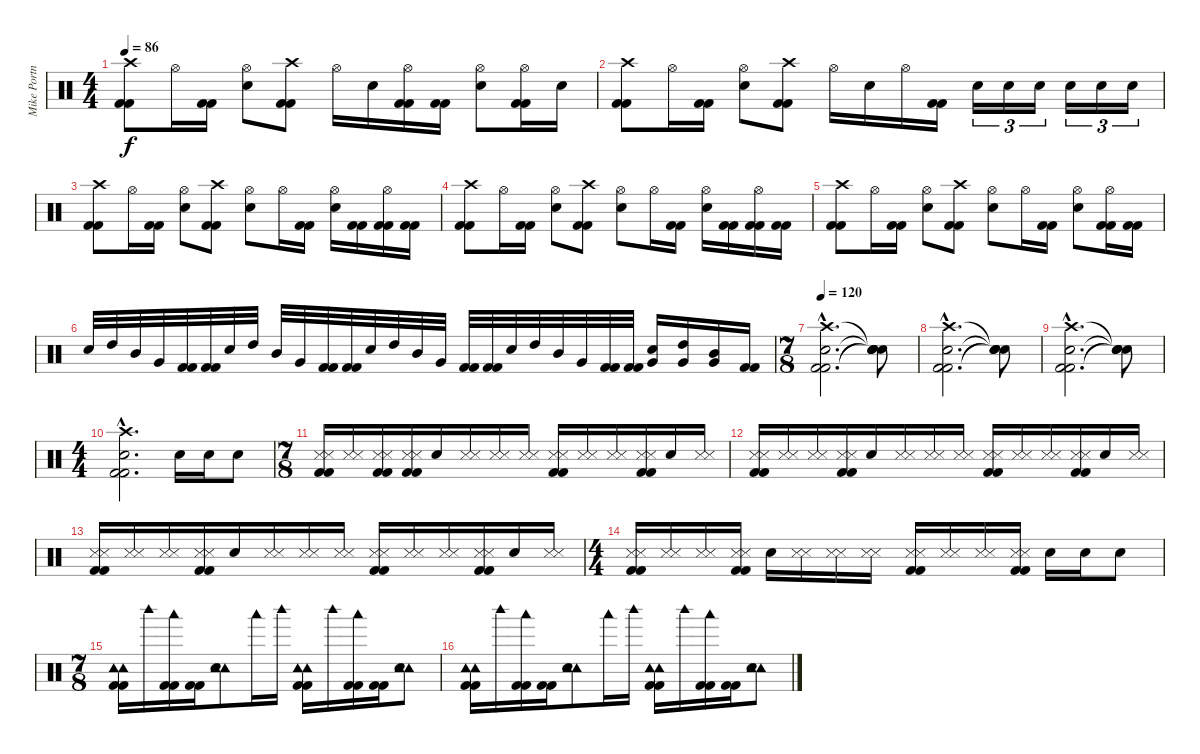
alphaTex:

\track ("Mike Portnoy - Drum" "Mike Portn") {instrument percussion}
\staff {score}
\articulation defaults
\ts (4 4)
\tempo 86
\clef neutral
\ks c
("Crash high (hit)" "Kick (hit) 2" "Kick (hit) 2").8{dy f} "Hi-Hat (open)".16 ("Kick (hit) 2" "Kick (hit) 2").16 ("Hi-Hat (open)" "Snare (hit) 2").8 ("Crash high (hit)" "Kick (hit) 2" "Kick (hit) 2").8 "Hi-Hat (open)".16 "Snare (hit) 2".16 ("Hi-Hat (open)" "Kick (hit) 2" "Kick (hit) 2").16 ("Kick (hit) 2" "Kick (hit) 2").16 ("Hi-Hat (open)" "Snare (hit) 2").8 ("Hi-Hat (open)" "Kick (hit) 2" "Kick (hit) 2").16 "Snare (hit) 2".16 |
("Crash high (hit)" "Kick (hit) 2" "Kick (hit) 2").8 "Hi-Hat (open)".16 ("Kick (hit) 2" "Kick (hit) 2").16 ("Hi-Hat (open)" "Snare (hit) 2").8 ("Crash high (hit)" "Kick (hit) 2" "Kick (hit) 2").8 "Hi-Hat (open)".16 "Snare (hit) 2".16 "Hi-Hat (open)".16 ("Kick (hit) 2" "Kick (hit) 2").16 "Snare (hit) 2".16{tu (3 2)} "Snare (hit) 2".16{tu (3 2)} "Snare (hit) 2".16{tu (3 2)} "Snare (hit) 2".16{tu (3 2)} "Snare (hit) 2".16{tu (3 2)} "Snare (hit) 2".16{tu (3 2)} |
("Crash high (hit)" "Kick (hit) 2" "Kick (hit) 2").8 "Hi-Hat (open)".16 ("Kick (hit) 2" "Kick (hit) 2").16 ("Hi-Hat (open)" "Snare (hit) 2").8 ("Crash high (hit)" "Kick (hit) 2" "Kick (hit) 2").8 ("Hi-Hat (open)" "Snare (hit) 2").8 "Hi-Hat (open)".16 ("Kick (hit) 2" "Kick (hit) 2").16 ("Hi-Hat (open)" "Snare (hit) 2").16 ("Kick (hit) 2" "Kick (hit) 2").16 ("Hi-Hat (open)" "Kick (hit) 2" "Kick (hit) 2").16 ("Kick (hit) 2" "Kick (hit) 2").16 |
("Crash high (hit)" "Kick (hit) 2" "Kick (hit) 2").8 "Hi-Hat (open)".16 ("Kick (hit) 2" "Kick (hit) 2").16 ("Hi-Hat (open)" "Snare (hit) 2").8 ("Crash high (hit)" "Kick (hit) 2" "Kick (hit) 2").8 ("Hi-Hat (open)" "Snare (hit) 2").8 "Hi-Hat (open)".16 ("Kick (hit) 2" "Kick (hit) 2").16 ("Hi-Hat (open)" "Snare (hit) 2").16 ("Kick (hit) 2" "Kick (hit) 2").16 ("Hi-Hat (open)" "Kick (hit) 2" "Kick (hit) 2").16 ("Kick (hit) 2" "Kick (hit) 2").16 |
("Crash high (hit)" "Kick (hit) 2" "Kick (hit) 2").8 "Hi-Hat (open)".16 ("Kick (hit) 2" "Kick (hit) 2").16 ("Hi-Hat (open)" "Snare (hit) 2").8 ("Crash high (hit)" "Kick (hit) 2" "Kick (hit) 2").8 ("Hi-Hat (open)" "Snare (hit) 2").8 "Hi-Hat (open)".16 ("Kick (hit) 2" "Kick (hit) 2").16 ("Hi-Hat (open)" "Snare (hit) 2").8 ("Hi-Hat (open)" "Kick (hit) 2" "Kick (hit) 2").16 ("Kick (hit) 2" "Kick (hit) 2").16 |
"Snare (hit) 2".32 "High Tom (hit)".32 "Mid Tom (hit)".32 "Very Low Tom (hit)".32 ("Kick (hit) 2" "Kick (hit) 2").32 ("Kick (hit) 2" "Kick (hit) 2").32 "Snare (hit) 2".32 "High Tom (hit)".32 "Mid Tom (hit)".32 "Very Low Tom (hit)".32 ("Kick (hit) 2" "Kick (hit) 2").32 ("Kick (hit) 2" "Kick (hit) 2").32 "Snare (hit) 2".32 "High Tom (hit)".32 "Mid Tom (hit)".32 "Very Low Tom (hit)".32 ("Kick (hit) 2" "Kick (hit) 2").32 ("Kick (hit) 2" "Kick (hit) 2").32 "Snare (hit) 2".32 "High Tom (hit)".32 "Mid Tom (hit)".32 "Very Low Tom (hit)".32 ("Kick (hit) 2" "Kick (hit) 2").32 ("Kick (hit) 2" "Kick (hit) 2").32 ("Snare (hit) 2" "Very Low Tom (hit)").16 ("High Tom (hit)" "Very Low Tom (hit)").16 ("Mid Tom (hit)" "Very Low Tom (hit)").16 ("Kick (hit) 2" "Kick (hit) 2").16 |
\ts (7 8)
\tempo 120
("Crash high (hit)"{hac} "Snare (hit) 2"{hac} "Kick (hit) 2"{hac} "Kick (hit) 2"{hac}).2{d} ("Snare (hit)"{t} "Snare (hit)"{t} "Snare (hit)"{t} "Snare (hit)"{t}).8 |
("Crash high (hit)"{hac} "Snare (hit) 2"{hac} "Kick (hit) 2"{hac} "Kick (hit) 2"{hac}).2{d} ("Snare (hit)"{t} "Snare (hit)"{t} "Snare (hit)"{t} "Snare (hit)"{t}).8 |
("Crash high (hit)"{hac} "Snare (hit) 2"{hac} "Kick (hit) 2"{hac} "Kick (hit) 2"{hac}).2{d} ("Snare (hit)"{t} "Snare (hit)"{t} "Snare (hit)"{t} "Snare (hit)"{t}).8 |
\ts (4 4)
("Crash high (hit)"{hac} "Snare (hit) 2"{hac} "Kick (hit) 2"{hac} "Kick (hit) 2"{hac}).2{d} "Snare (hit) 2".16 "Snare (hit) 2".16 "Snare (hit) 2".8 |
\ts (7 8)
("Snare (side stick) 3" "Snare (side stick) 3" "Kick (hit) 2" "Kick (hit) 2").16 ("Snare (side stick) 3" "Snare (side stick) 3").16 ("Snare (side stick) 3" "Snare (side stick) 3" "Kick (hit) 2" "Kick (hit) 2").16 ("Snare (side stick) 3" "Snare (side stick) 3" "Kick (hit) 2" "Kick (hit) 2").16 "Snare (hit) 2".16 ("Snare (side stick) 3" "Snare (side stick) 3").16 ("Snare (side stick) 3" "Snare (side stick) 3").16 ("Snare (side stick) 3" "Snare (side stick) 3").16 ("Snare (side stick) 3" "Snare (side stick) 3" "Kick (hit) 2" "Kick (hit) 2").16 ("Snare (side stick) 3" "Snare (side stick) 3").16 ("Snare (side stick) 3" "Snare (side stick) 3").16 ("Snare (side stick) 3" "Snare (side stick) 3" "Kick (hit) 2" "Kick (hit) 2").16 "Snare (hit) 2".16 ("Snare (side stick) 3" "Snare (side stick) 3").16 |
("Snare (side stick) 3" "Snare (side stick) 3" "Kick (hit) 2" "Kick (hit) 2").16 ("Snare (side stick) 3" "Snare (side stick) 3").16 ("Snare (side stick) 3" "Snare (side stick) 3").16 ("Snare (side stick) 3" "Snare (side stick) 3" "Kick (hit) 2" "Kick (hit) 2").16 "Snare (hit) 2".16 ("Snare (side stick) 3" "Snare (side stick) 3").16 ("Snare (side stick) 3" "Snare (side stick) 3").16 ("Snare (side stick) 3" "Snare (side stick) 3").16 ("Snare (side stick) 3" "Snare (side stick) 3" "Kick (hit) 2" "Kick (hit) 2").16 ("Snare (side stick) 3" "Snare (side stick) 3").16 ("Snare (side stick) 3" "Snare (side stick) 3").16 ("Snare (side stick) 3" "Snare (side stick) 3" "Kick (hit) 2" "Kick (hit) 2").16 "Snare (hit) 2".16 ("Snare (side stick) 3" "Snare (side stick) 3").16 |
("Snare (side stick) 3" "Snare (side stick) 3" "Kick (hit) 2" "Kick (hit) 2").16 ("Snare (side stick) 3" "Snare (side stick) 3").16 ("Snare (side stick) 3" "Snare (side stick) 3").16 ("Snare (side stick) 3" "Snare (side stick) 3" "Kick (hit) 2" "Kick (hit) 2").16 "Snare (hit) 2".16 ("Snare (side stick) 3" "Snare (side stick) 3").16 ("Snare (side stick) 3" "Snare (side stick) 3").16 ("Snare (side stick) 3" "Snare (side stick) 3").16 ("Snare (side stick) 3" "Snare (side stick) 3" "Kick (hit) 2" "Kick (hit) 2").16 ("Snare (side stick) 3" "Snare (side stick) 3").16 ("Snare (side stick) 3" "Snare (side stick) 3").16 ("Snare (side stick) 3" "Snare (side stick) 3" "Kick (hit) 2" "Kick (hit) 2").16 "Snare (hit) 2".16 ("Snare (side stick) 3" "Snare (side stick) 3").16 |
\ts (4 4)
("Snare (side stick) 3" "Snare (side stick) 3" "Kick (hit) 2" "Kick (hit) 2").16 ("Snare (side stick) 3" "Snare (side stick) 3").16 ("Snare (side stick) 3" "Snare (side stick) 3").16 ("Snare (side stick) 3" "Snare (side stick) 3" "Kick (hit) 2" "Kick (hit) 2").16 "Snare (hit) 2".16 ("Snare (side stick) 3" "Snare (side stick) 3").16 ("Snare (side stick) 3" "Snare (side stick) 3").16 ("Snare (side stick) 3" "Snare (side stick) 3").16 ("Snare (side stick) 3" "Snare (side stick) 3" "Kick (hit) 2" "Kick (hit) 2").16 ("Snare (side stick) 3" "Snare (side stick) 3").16 ("Snare (side stick) 3" "Snare (side stick) 3").16 ("Snare (side stick) 3" "Snare (side stick) 3" "Kick (hit) 2" "Kick (hit) 2").16 "Snare (hit) 2".16 "Snare (hit) 2".16 "Snare (hit) 2".8 |
\ts (7 8)
("Tambourine (hit)" "Tambourine (hit)" "Kick (hit) 2" "Kick (hit) 2").16 "Woodblock high (hit)".16 ("Woodblock low (hit)" "Kick (hit) 2" "Kick (hit) 2").16 ("Kick (hit) 2" "Kick (hit) 2").16 ("Tambourine (hit)" "Tambourine (hit)" "Snare (hit) 2").8 "Woodblock low (hit)".16 "Woodblock high (hit)".16 ("Tambourine (hit)" "Tambourine (hit)" "Kick (hit) 2" "Kick (hit) 2").16 "Woodblock high (hit)".16 ("Woodblock low (hit)" "Kick (hit) 2" "Kick (hit) 2").16 ("Kick (hit) 2" "Kick (hit) 2").16 ("Tambourine (hit)" "Tambourine (hit)" "Snare (hit) 2").8 |
("Tambourine (hit)" "Tambourine (hit)" "Kick (hit) 2" "Kick (hit) 2").16 "Woodblock high (hit)".16 ("Woodblock low (hit)" "Kick (hit) 2" "Kick (hit) 2").16 ("Kick (hit) 2" "Kick (hit) 2").16 ("Tambourine (hit)" "Tambourine (hit)" "Snare (hit) 2").8 "Woodblock low (hit)".16 "Woodblock high (hit)".16 ("Tambourine (hit)" "Tambourine (hit)" "Kick (hit) 2" "Kick (hit) 2").16 "Woodblock high (hit)".16 ("Woodblock low (hit)" "Kick (hit) 2" "Kick (hit) 2").16 ("Kick (hit) 2" "Kick (hit) 2").16 ("Tambourine (hit)" "Tambourine (hit)" "Snare (hit) 2").8
